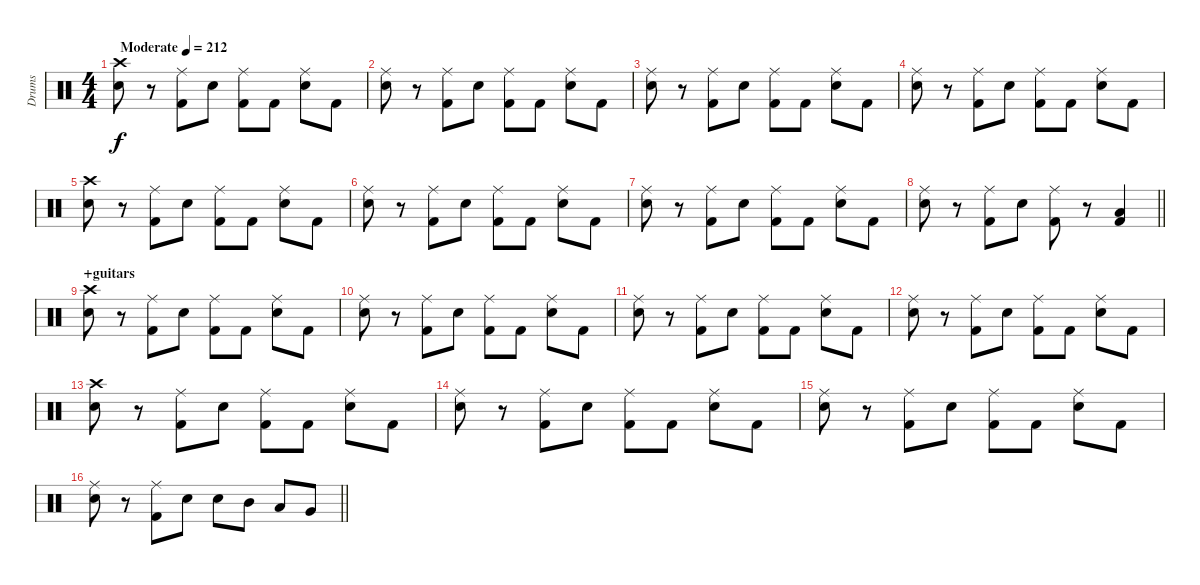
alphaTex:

\track ("Drums" "Drums") {instrument percussion}
\staff {score}
\articulation defaults
\ts (4 4)
\tempo (212 "Moderate")
\clef neutral
\ks c
("Crash high (hit)" "Snare (hit) 2").8{dy f} r.8 ("Ride (middle)" "Kick (hit) 2").8 "Snare (hit) 2".8 ("Ride (middle)" "Kick (hit) 2").8 "Kick (hit) 2".8 ("Ride (middle)" "Snare (hit) 2").8 "Kick (hit) 2".8 |
("Ride (middle)" "Snare (hit) 2").8 r.8 ("Ride (middle)" "Kick (hit) 2").8 "Snare (hit) 2".8 ("Ride (middle)" "Kick (hit) 2").8 "Kick (hit) 2".8 ("Ride (middle)" "Snare (hit) 2").8 "Kick (hit) 2".8 |
("Ride (middle)" "Snare (hit) 2").8 r.8 ("Ride (middle)" "Kick (hit) 2").8 "Snare (hit) 2".8 ("Ride (middle)" "Kick (hit) 2").8 "Kick (hit) 2".8 ("Ride (middle)" "Snare (hit) 2").8 "Kick (hit) 2".8 |
("Ride (middle)" "Snare (hit) 2").8 r.8 ("Ride (middle)" "Kick (hit) 2").8 "Snare (hit) 2".8 ("Ride (middle)" "Kick (hit) 2").8 "Kick (hit) 2".8 ("Ride (middle)" "Snare (hit) 2").8 "Kick (hit) 2".8 |
("Crash high (hit)" "Snare (hit) 2").8 r.8 ("Ride (middle)" "Kick (hit) 2").8 "Snare (hit) 2".8 ("Ride (middle)" "Kick (hit) 2").8 "Kick (hit) 2".8 ("Ride (middle)" "Snare (hit) 2").8 "Kick (hit) 2".8 |
("Ride (middle)" "Snare (hit) 2").8 r.8 ("Ride (middle)" "Kick (hit) 2").8 "Snare (hit) 2".8 ("Ride (middle)" "Kick (hit) 2").8 "Kick (hit) 2".8 ("Ride (middle)" "Snare (hit) 2").8 "Kick (hit) 2".8 |
("Ride (middle)" "Snare (hit) 2").8 r.8 ("Ride (middle)" "Kick (hit) 2").8 "Snare (hit) 2".8 ("Ride (middle)" "Kick (hit) 2").8 "Kick (hit) 2".8 ("Ride (middle)" "Snare (hit) 2").8 "Kick (hit) 2".8 |
\barLineRight lightlight
("Ride (middle)" "Snare (hit) 2").8 r.8 ("Ride (middle)" "Kick (hit) 2").8 "Snare (hit) 2".8 ("Ride (middle)" "Kick (hit) 2").8 r.8 ("Low Floor Tom (hit)" "Kick (hit) 2").4 |
\section ("" "+guitars")
("Crash high (hit)" "Snare (hit) 2").8 r.8 ("Ride (middle)" "Kick (hit) 2").8 "Snare (hit) 2".8 ("Ride (middle)" "Kick (hit) 2").8 "Kick (hit) 2".8 ("Ride (middle)" "Snare (hit) 2").8 "Kick (hit) 2".8 |
("Ride (middle)" "Snare (hit) 2").8 r.8 ("Ride (middle)" "Kick (hit) 2").8 "Snare (hit) 2".8 ("Ride (middle)" "Kick (hit) 2").8 "Kick (hit) 2".8 ("Ride (middle)" "Snare (hit) 2").8 "Kick (hit) 2".8 |
("Ride (middle)" "Snare (hit) 2").8 r.8 ("Ride (middle)" "Kick (hit) 2").8 "Snare (hit) 2".8 ("Ride (middle)" "Kick (hit) 2").8 "Kick (hit) 2".8 ("Ride (middle)" "Snare (hit) 2").8 "Kick (hit) 2".8 |
("Ride (middle)" "Snare (hit) 2").8 r.8 ("Ride (middle)" "Kick (hit) 2").8 "Snare (hit) 2".8 ("Ride (middle)" "Kick (hit) 2").8 "Kick (hit) 2".8 ("Ride (middle)" "Snare (hit) 2").8 "Kick (hit) 2".8 |
("Crash high (hit)" "Snare (hit) 2").8 r.8 ("Ride (middle)" "Kick (hit) 2").8 "Snare (hit) 2".8 ("Ride (middle)" "Kick (hit) 2").8 "Kick (hit) 2".8 ("Ride (middle)" "Snare (hit) 2").8 "Kick (hit) 2".8 |
("Ride (middle)" "Snare (hit) 2").8 r.8 ("Ride (middle)" "Kick (hit) 2").8 "Snare (hit) 2".8 ("Ride (middle)" "Kick (hit) 2").8 "Kick (hit) 2".8 ("Ride (middle)" "Snare (hit) 2").8 "Kick (hit) 2".8 |
("Ride (middle)" "Snare (hit) 2").8 r.8 ("Ride (middle)" "Kick (hit) 2").8 "Snare (hit) 2".8 ("Ride (middle)" "Kick (hit) 2").8 "Kick (hit) 2".8 ("Ride (middle)" "Snare (hit) 2").8 "Kick (hit) 2".8 |
\barLineRight lightlight
("Ride (middle)" "Snare (hit) 2").8 r.8 ("Ride (middle)" "Kick (hit) 2").8 "Snare (hit) 2".8 "Snare (hit) 2".8 "Mid Tom (hit)".8 "Low Tom (hit)".8 "Very Low Tom (hit)".8
